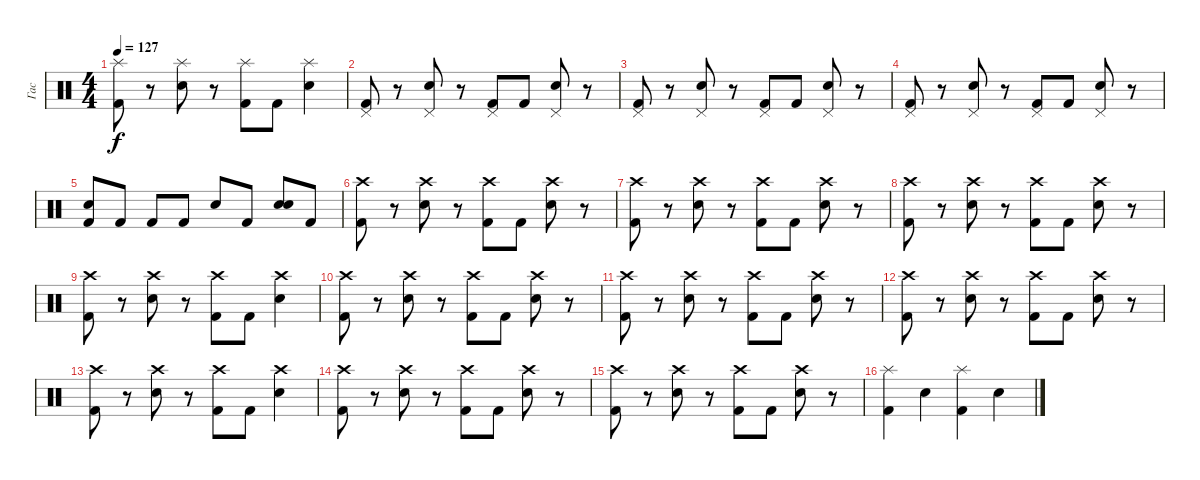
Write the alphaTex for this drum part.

\track ("Гас" "Гас") {instrument percussion}
\staff {score}
\articulation defaults
\ts (4 4)
\tempo 127
\clef neutral
\ks c
("Splash (hit)" "Kick (hit) 2").8{dy f} r.8 ("Splash (hit)" "Electric Snare (hit)").8 r.8 ("Splash (hit)" "Kick (hit) 2").8 "Kick (hit) 2".8 ("Splash (hit)" "Electric Snare (hit)").4 |
("Pedal Hi-Hat (hit)" "Kick (hit) 2").8 r.8 ("Pedal Hi-Hat (hit)" "Electric Snare (hit)").8 r.8 ("Pedal Hi-Hat (hit)" "Kick (hit) 2").8 "Kick (hit) 2".8 ("Pedal Hi-Hat (hit)" "Electric Snare (hit)").8 r.8 |
("Pedal Hi-Hat (hit)" "Kick (hit) 2").8 r.8 ("Pedal Hi-Hat (hit)" "Electric Snare (hit)").8 r.8 ("Pedal Hi-Hat (hit)" "Kick (hit) 2").8 "Kick (hit) 2".8 ("Pedal Hi-Hat (hit)" "Electric Snare (hit)").8 r.8 |
("Pedal Hi-Hat (hit)" "Kick (hit) 2").8 r.8 ("Pedal Hi-Hat (hit)" "Electric Snare (hit)").8 r.8 ("Pedal Hi-Hat (hit)" "Kick (hit) 2").8 "Kick (hit) 2".8 ("Pedal Hi-Hat (hit)" "Electric Snare (hit)").8 r.8 |
("Electric Snare (hit)" "Kick (hit) 2").8 "Kick (hit) 2".8 "Kick (hit) 2".8 "Kick (hit) 2".8 "Electric Snare (hit)".8 "Kick (hit) 2".8 ("Electric Snare (hit)" "Snare (hit) 2").8 "Kick (hit) 2".8 |
("Crash high (hit)" "Kick (hit) 2").8 r.8 ("Crash high (hit)" "Electric Snare (hit)").8 r.8 ("Crash high (hit)" "Kick (hit) 2").8 "Kick (hit) 2".8 ("Crash high (hit)" "Electric Snare (hit)").8 r.8 |
("Crash high (hit)" "Kick (hit) 2").8 r.8 ("Crash high (hit)" "Electric Snare (hit)").8 r.8 ("Crash high (hit)" "Kick (hit) 2").8 "Kick (hit) 2".8 ("Crash high (hit)" "Electric Snare (hit)").8 r.8 |
("Crash high (hit)" "Kick (hit) 2").8 r.8 ("Crash high (hit)" "Electric Snare (hit)").8 r.8 ("Crash high (hit)" "Kick (hit) 2").8 "Kick (hit) 2".8 ("Crash high (hit)" "Electric Snare (hit)").8 r.8 |
("Crash high (hit)" "Kick (hit) 2").8 r.8 ("Crash high (hit)" "Electric Snare (hit)").8 r.8 ("Crash high (hit)" "Kick (hit) 2").8 "Kick (hit) 2".8 ("Crash high (hit)" "Electric Snare (hit)").4 |
("Crash high (hit)" "Kick (hit) 2").8 r.8 ("Crash high (hit)" "Electric Snare (hit)").8 r.8 ("Crash high (hit)" "Kick (hit) 2").8 "Kick (hit) 2".8 ("Crash high (hit)" "Electric Snare (hit)").8 r.8 |
("Crash high (hit)" "Kick (hit) 2").8 r.8 ("Crash high (hit)" "Electric Snare (hit)").8 r.8 ("Crash high (hit)" "Kick (hit) 2").8 "Kick (hit) 2".8 ("Crash high (hit)" "Electric Snare (hit)").8 r.8 |
("Crash high (hit)" "Kick (hit) 2").8 r.8 ("Crash high (hit)" "Electric Snare (hit)").8 r.8 ("Crash high (hit)" "Kick (hit) 2").8 "Kick (hit) 2".8 ("Crash high (hit)" "Electric Snare (hit)").8 r.8 |
("Crash high (hit)" "Kick (hit) 2").8 r.8 ("Crash high (hit)" "Electric Snare (hit)").8 r.8 ("Crash high (hit)" "Kick (hit) 2").8 "Kick (hit) 2".8 ("Crash high (hit)" "Electric Snare (hit)").4 |
("Crash high (hit)" "Kick (hit) 2").8 r.8 ("Crash high (hit)" "Electric Snare (hit)").8 r.8 ("Crash high (hit)" "Kick (hit) 2").8 "Kick (hit) 2".8 ("Crash high (hit)" "Electric Snare (hit)").8 r.8 |
("Crash high (hit)" "Kick (hit) 2").8 r.8 ("Crash high (hit)" "Electric Snare (hit)").8 r.8 ("Crash high (hit)" "Kick (hit) 2").8 "Kick (hit) 2".8 ("Crash high (hit)" "Electric Snare (hit)").8 r.8 |
("Splash (hit)" "Kick (hit) 2").4 "Electric Snare (hit)".4 ("Splash (hit)" "Kick (hit) 2").4 "Electric Snare (hit)".4
